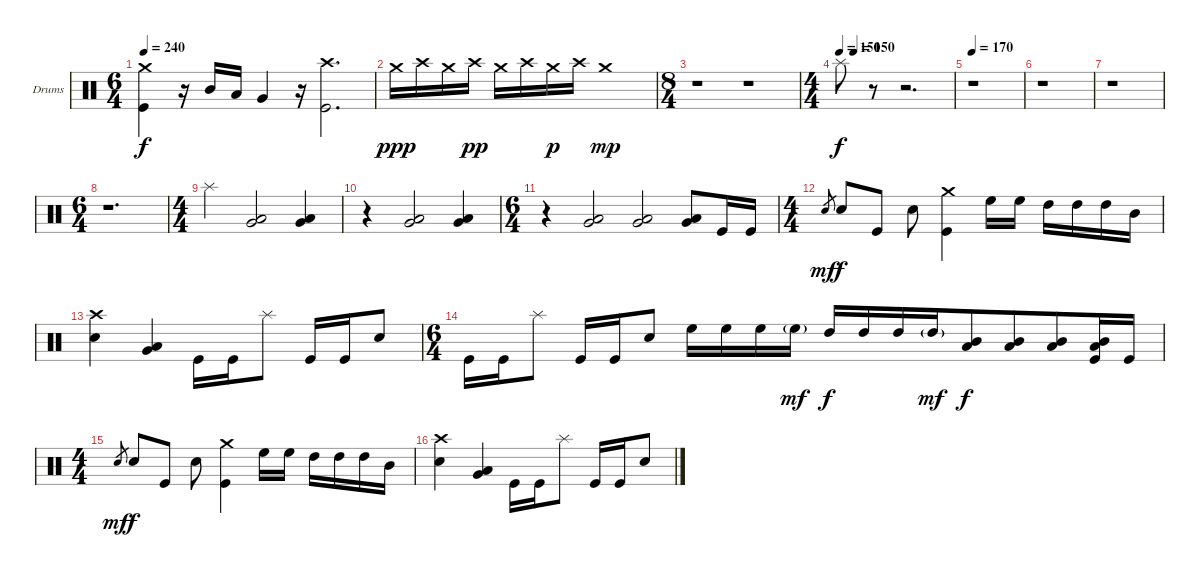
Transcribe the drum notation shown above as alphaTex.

\bracketExtendMode groupsimilarinstruments
\firstSystemTrackNameOrientation horizontal
\otherSystemsTrackNameOrientation horizontal
\track ("Дмитрий Кривенков" "Drums") {instrument percussion}
\staff {score}
\articulation defaults
\ts (6 4)
\tempo 240
\clef neutral
\ks c
("Crash medium (hit)" "Kick (hit)").4{dy f} r.16 "Mid Tom (hit)".16 "Low Tom (hit)".16 "Very Low Tom (hit)".4 r.16 ("Crash high (hit)" "Kick (hit)").2{d} |
"Crash medium (hit)".16{dy ppp} "Crash high (hit)".16 "Crash medium (hit)".16 "Crash high (hit)".16{dy pp} "Crash medium (hit)".16 "Crash high (hit)".16 "Crash medium (hit)".16{dy p} "Crash high (hit)".16 "Crash medium (hit)".1{dy mp} |
\ts (8 4)
\beaming (8 4 4 4 4)
r.1 r.1 |
\ts (4 4)
\beaming (8 2 2 2 2)
\tempo 150
\tempo (150 0.125)
"Splash (hit)".8{dy f} r.8 r.2{d} |
\tempo 170
r.1 |
r.1 |
r.1 |
\ts (6 4)
\beaming (8 2 2 2 6)
r.1{d} |
\ts (4 4)
\beaming (8 2 2 2 2)
"Splash (hit)".4 ("Low Tom (hit)" "Very Low Tom (hit)").2 ("Low Tom (hit)" "Very Low Tom (hit)").4 |
r.4 ("Low Tom (hit)" "Very Low Tom (hit)").2 ("Low Tom (hit)" "Very Low Tom (hit)").4 |
\ts (6 4)
\beaming (8 2 2 2 6)
r.4 ("Low Tom (hit)" "Very Low Tom (hit)").2 ("Low Tom (hit)" "Very Low Tom (hit)").2 ("Low Tom (hit)" "Very Low Tom (hit)").8 "Kick (hit)".16 "Kick (hit)".16 |
\ts (4 4)
\beaming (8 2 2 2 2)
"Snare (hit) 2".8{gr dy mf} "Snare (hit) 2".8{dy f} "Kick (hit)".8 "Snare (hit) 2".8 ("Crash medium (hit)" "Kick (hit)").4 "High Floor Tom (hit)".16 "High Floor Tom (hit)".16 "High Tom (hit)".16 "High Tom (hit)".16 "High Tom (hit)".16 "Mid Tom (hit)".16 |
("Crash high (hit)" "Snare (hit) 2").4 ("Very Low Tom (hit)" "Low Tom (hit)").4 "Kick (hit)".16 "Kick (hit)".16 "Splash (hit)".8 "Kick (hit)".16 "Kick (hit)".16 "Snare (hit) 2".8 |
\ts (6 4)
\beaming (8 2 2 2 6)
"Kick (hit)".16 "Kick (hit)".16 "Splash (hit)".8 "Kick (hit)".16 "Kick (hit)".16 "Snare (hit) 2".8 "High Floor Tom (hit)".16 "High Floor Tom (hit)".16 "High Floor Tom (hit)".16 "High Floor Tom (hit)"{g}.16{dy mf} "High Tom (hit)".16{dy f} "High Tom (hit)".16 "High Tom (hit)".16 "High Tom (hit)"{g}.16{dy mf} ("Mid Tom (hit)" "Low Tom (hit)").8{dy f} ("Mid Tom (hit)" "Low Tom (hit)").8 ("Mid Tom (hit)" "Low Tom (hit)").8 ("Mid Tom (hit)" "Low Tom (hit)" "Kick (hit)").16 "Kick (hit)".16 |
\ts (4 4)
\beaming (8 2 2 2 2)
"Snare (hit) 2".8{gr dy mf} "Snare (hit) 2".8{dy f} "Kick (hit)".8 "Snare (hit) 2".8 ("Crash medium (hit)" "Kick (hit)").4 "High Floor Tom (hit)".16 "High Floor Tom (hit)".16 "High Tom (hit)".16 "High Tom (hit)".16 "High Tom (hit)".16 "Mid Tom (hit)".16 |
("Crash high (hit)" "Snare (hit) 2").4 ("Very Low Tom (hit)" "Low Tom (hit)").4 "Kick (hit)".16 "Kick (hit)".16 "Splash (hit)".8 "Kick (hit)".16 "Kick (hit)".16 "Snare (hit) 2".8
